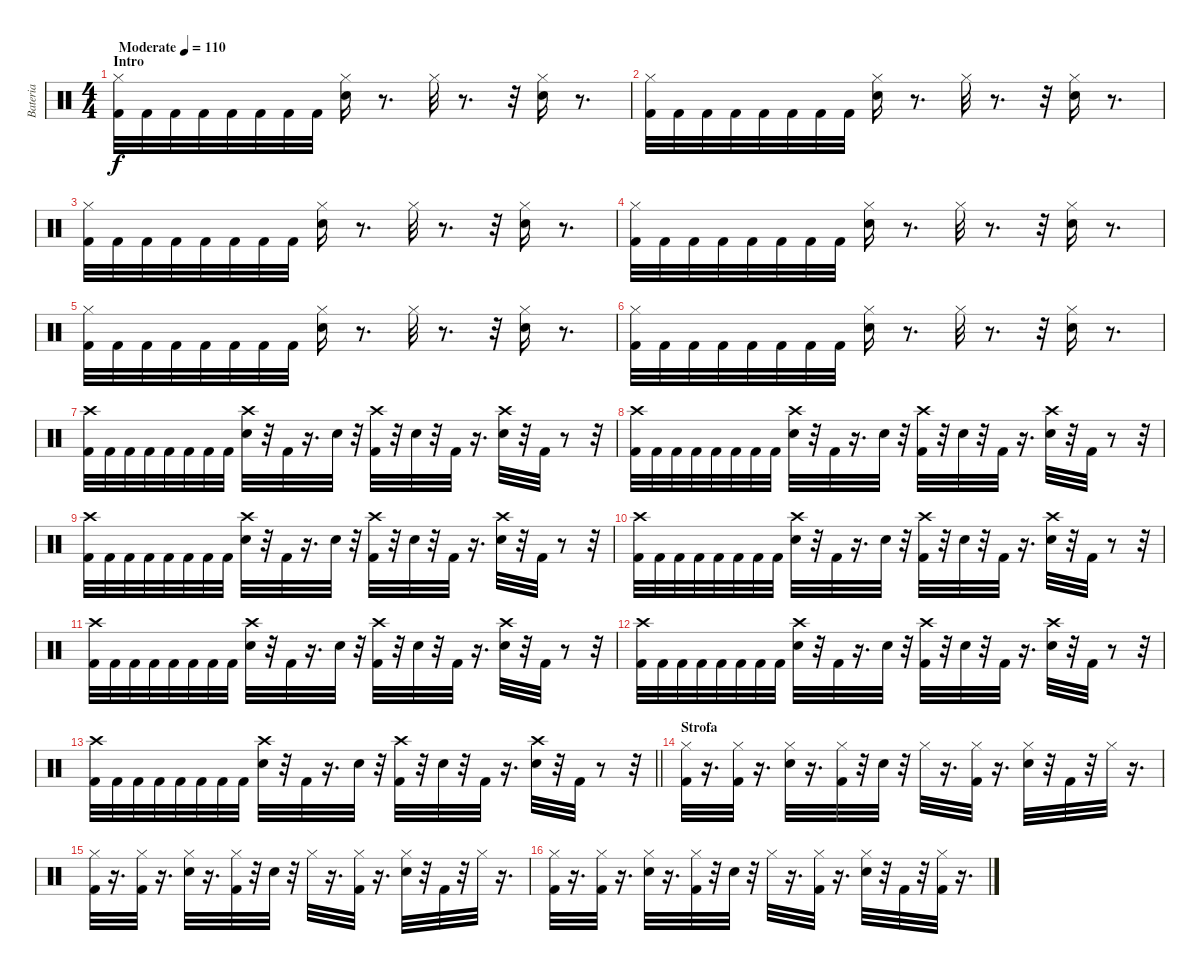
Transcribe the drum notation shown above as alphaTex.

\track ("Bateria" "Bateria") {instrument percussion}
\staff {score}
\articulation defaults
\ts (4 4)
\section ("" "Intro")
\tempo (110 "Moderate")
\clef neutral
\ks c
("Hi-Hat (closed)" "Kick (hit) 2").32{dy f} "Kick (hit) 2".32 "Kick (hit) 2".32 "Kick (hit) 2".32 "Kick (hit) 2".32 "Kick (hit) 2".32 "Kick (hit) 2".32 "Kick (hit) 2".32 ("Snare (hit) 2" "Hi-Hat (closed)").16 r.8{d} "Hi-Hat (closed)".32 r.8{d} r.32 ("Snare (hit) 2" "Hi-Hat (closed)").16 r.8{d} |
("Hi-Hat (closed)" "Kick (hit) 2").32 "Kick (hit) 2".32 "Kick (hit) 2".32 "Kick (hit) 2".32 "Kick (hit) 2".32 "Kick (hit) 2".32 "Kick (hit) 2".32 "Kick (hit) 2".32 ("Snare (hit) 2" "Hi-Hat (closed)").16 r.8{d} "Hi-Hat (closed)".32 r.8{d} r.32 ("Snare (hit) 2" "Hi-Hat (closed)").16 r.8{d} |
("Hi-Hat (closed)" "Kick (hit) 2").32 "Kick (hit) 2".32 "Kick (hit) 2".32 "Kick (hit) 2".32 "Kick (hit) 2".32 "Kick (hit) 2".32 "Kick (hit) 2".32 "Kick (hit) 2".32 ("Snare (hit) 2" "Hi-Hat (closed)").16 r.8{d} "Hi-Hat (closed)".32 r.8{d} r.32 ("Snare (hit) 2" "Hi-Hat (closed)").16 r.8{d} |
("Hi-Hat (closed)" "Kick (hit) 2").32 "Kick (hit) 2".32 "Kick (hit) 2".32 "Kick (hit) 2".32 "Kick (hit) 2".32 "Kick (hit) 2".32 "Kick (hit) 2".32 "Kick (hit) 2".32 ("Snare (hit) 2" "Hi-Hat (closed)").16 r.8{d} "Hi-Hat (closed)".32 r.8{d} r.32 ("Snare (hit) 2" "Hi-Hat (closed)").16 r.8{d} |
("Hi-Hat (closed)" "Kick (hit) 2").32 "Kick (hit) 2".32 "Kick (hit) 2".32 "Kick (hit) 2".32 "Kick (hit) 2".32 "Kick (hit) 2".32 "Kick (hit) 2".32 "Kick (hit) 2".32 ("Snare (hit) 2" "Hi-Hat (closed)").16 r.8{d} "Hi-Hat (closed)".32 r.8{d} r.32 ("Snare (hit) 2" "Hi-Hat (closed)").16 r.8{d} |
("Hi-Hat (closed)" "Kick (hit) 2").32 "Kick (hit) 2".32 "Kick (hit) 2".32 "Kick (hit) 2".32 "Kick (hit) 2".32 "Kick (hit) 2".32 "Kick (hit) 2".32 "Kick (hit) 2".32 ("Snare (hit) 2" "Hi-Hat (closed)").16 r.8{d} "Hi-Hat (closed)".32 r.8{d} r.32 ("Snare (hit) 2" "Hi-Hat (closed)").16 r.8{d} |
("Crash high (hit)" "Kick (hit) 2").32 "Kick (hit) 2".32 "Kick (hit) 2".32 "Kick (hit) 2".32 "Kick (hit) 2".32 "Kick (hit) 2".32 "Kick (hit) 2".32 "Kick (hit) 2".32 ("Snare (hit) 2" "Crash high (hit)").32 r.32 "Kick (hit) 2".32 r.16{d} "Snare (hit) 2".32 r.32 ("Kick (hit) 2" "Crash high (hit)").32 r.32 "Snare (hit) 2".32 r.32 "Kick (hit) 2".32 r.16{d} ("Snare (hit) 2" "Crash high (hit)").32 r.32 "Kick (hit) 2".32 r.8 r.32 |
("Kick (hit) 2" "Crash high (hit)").32 "Kick (hit) 2".32 "Kick (hit) 2".32 "Kick (hit) 2".32 "Kick (hit) 2".32 "Kick (hit) 2".32 "Kick (hit) 2".32 "Kick (hit) 2".32 ("Snare (hit) 2" "Crash high (hit)").32 r.32 "Kick (hit) 2".32 r.16{d} "Snare (hit) 2".32 r.32 ("Kick (hit) 2" "Crash high (hit)").32 r.32 "Snare (hit) 2".32 r.32 "Kick (hit) 2".32 r.16{d} ("Snare (hit) 2" "Crash high (hit)").32 r.32 "Kick (hit) 2".32 r.8 r.32 |
("Kick (hit) 2" "Crash high (hit)").32 "Kick (hit) 2".32 "Kick (hit) 2".32 "Kick (hit) 2".32 "Kick (hit) 2".32 "Kick (hit) 2".32 "Kick (hit) 2".32 "Kick (hit) 2".32 ("Snare (hit) 2" "Crash high (hit)").32 r.32 "Kick (hit) 2".32 r.16{d} "Snare (hit) 2".32 r.32 ("Kick (hit) 2" "Crash high (hit)").32 r.32 "Snare (hit) 2".32 r.32 "Kick (hit) 2".32 r.16{d} ("Snare (hit) 2" "Crash high (hit)").32 r.32 "Kick (hit) 2".32 r.8 r.32 |
("Kick (hit) 2" "Crash high (hit)").32 "Kick (hit) 2".32 "Kick (hit) 2".32 "Kick (hit) 2".32 "Kick (hit) 2".32 "Kick (hit) 2".32 "Kick (hit) 2".32 "Kick (hit) 2".32 ("Snare (hit) 2" "Crash high (hit)").32 r.32 "Kick (hit) 2".32 r.16{d} "Snare (hit) 2".32 r.32 ("Crash high (hit)" "Kick (hit) 2").32 r.32 "Snare (hit) 2".32 r.32 "Kick (hit) 2".32 r.16{d} ("Crash high (hit)" "Snare (hit) 2").32 r.32 "Kick (hit) 2".32 r.8 r.32 |
("Crash high (hit)" "Kick (hit) 2").32 "Kick (hit) 2".32 "Kick (hit) 2".32 "Kick (hit) 2".32 "Kick (hit) 2".32 "Kick (hit) 2".32 "Kick (hit) 2".32 "Kick (hit) 2".32 ("Crash high (hit)" "Snare (hit) 2").32 r.32 "Kick (hit) 2".32 r.16{d} "Snare (hit) 2".32 r.32 ("Kick (hit) 2" "Crash high (hit)").32 r.32 "Snare (hit) 2".32 r.32 "Kick (hit) 2".32 r.16{d} ("Snare (hit) 2" "Crash high (hit)").32 r.32 "Kick (hit) 2".32 r.8 r.32 |
("Kick (hit) 2" "Crash high (hit)").32 "Kick (hit) 2".32 "Kick (hit) 2".32 "Kick (hit) 2".32 "Kick (hit) 2".32 "Kick (hit) 2".32 "Kick (hit) 2".32 "Kick (hit) 2".32 ("Snare (hit) 2" "Crash high (hit)").32 r.32 "Kick (hit) 2".32 r.16{d} "Snare (hit) 2".32 r.32 ("Kick (hit) 2" "Crash high (hit)").32 r.32 "Snare (hit) 2".32 r.32 "Kick (hit) 2".32 r.16{d} ("Snare (hit) 2" "Crash high (hit)").32 r.32 "Kick (hit) 2".32 r.8 r.32 |
\barLineRight lightlight
("Crash high (hit)" "Kick (hit) 2").32 "Kick (hit) 2".32 "Kick (hit) 2".32 "Kick (hit) 2".32 "Kick (hit) 2".32 "Kick (hit) 2".32 "Kick (hit) 2".32 "Kick (hit) 2".32 ("Snare (hit) 2" "Crash high (hit)").32 r.32 "Kick (hit) 2".32 r.16{d} "Snare (hit) 2".32 r.32 ("Kick (hit) 2" "Crash high (hit)").32 r.32 "Snare (hit) 2".32 r.32 "Kick (hit) 2".32 r.16{d} ("Snare (hit) 2" "Crash high (hit)").32 r.32 "Kick (hit) 2".32 r.8 r.32 |
\section ("" "Strofa")
("Hi-Hat (closed)" "Kick (hit) 2").32 r.16{d} ("Hi-Hat (closed)" "Kick (hit) 2").32 r.16{d} ("Hi-Hat (closed)" "Snare (hit) 2").32 r.16{d} ("Hi-Hat (closed)" "Kick (hit) 2").32 r.32 "Snare (hit) 2".32 r.32 "Hi-Hat (closed)".32 r.16{d} ("Hi-Hat (closed)" "Kick (hit) 2").32 r.16{d} ("Hi-Hat (closed)" "Snare (hit) 2").32 r.32 "Kick (hit) 2".32 r.32 "Hi-Hat (closed)".32 r.16{d} |
("Kick (hit) 2" "Hi-Hat (closed)").32 r.16{d} ("Kick (hit) 2" "Hi-Hat (closed)").32 r.16{d} ("Snare (hit) 2" "Hi-Hat (closed)").32 r.16{d} ("Kick (hit) 2" "Hi-Hat (closed)").32 r.32 "Snare (hit) 2".32 r.32 "Hi-Hat (closed)".32 r.16{d} ("Kick (hit) 2" "Hi-Hat (closed)").32 r.16{d} ("Snare (hit) 2" "Hi-Hat (closed)").32 r.32 "Kick (hit) 2".32 r.32 "Hi-Hat (closed)".32 r.16{d} |
("Kick (hit) 2" "Hi-Hat (closed)").32 r.16{d} ("Kick (hit) 2" "Hi-Hat (closed)").32 r.16{d} ("Snare (hit) 2" "Hi-Hat (closed)").32 r.16{d} ("Kick (hit) 2" "Hi-Hat (closed)").32 r.32 "Snare (hit) 2".32 r.32 "Hi-Hat (closed)".32 r.16{d} ("Kick (hit) 2" "Hi-Hat (closed)").32 r.16{d} ("Snare (hit) 2" "Hi-Hat (closed)").32 r.32 "Kick (hit) 2".32 r.32 ("Kick (hit) 2" "Hi-Hat (closed)").32 r.16{d}
